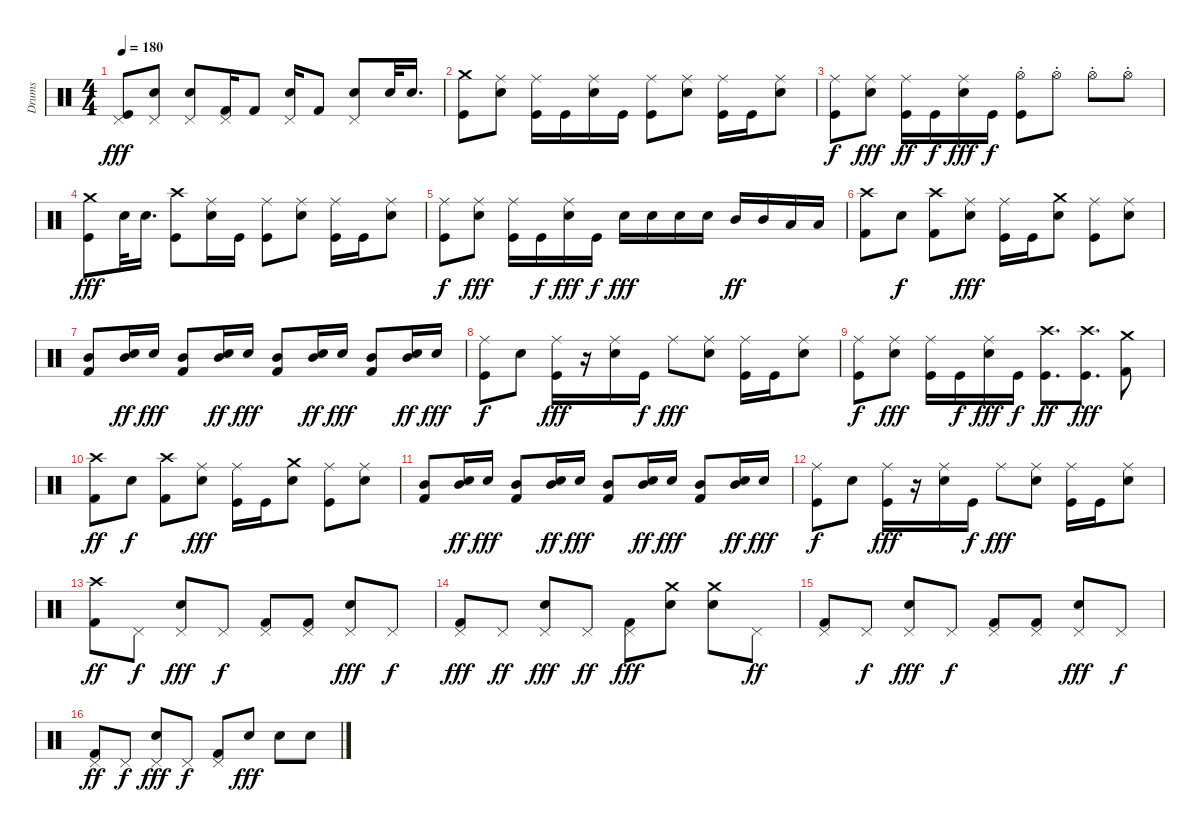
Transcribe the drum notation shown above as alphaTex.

\track ("Drums" "Drums") {instrument percussion}
\staff {score}
\articulation defaults
\ts (4 4)
\tempo 180
\clef neutral
\ks c
("Pedal Hi-Hat (hit)" "Kick (hit)").8{dy fff} ("Pedal Hi-Hat (hit)" "Snare (hit) 2").8 ("Pedal Hi-Hat (hit)" "Snare (hit) 2").8 ("Pedal Hi-Hat (hit)" "Kick (hit) 2").16 "Kick (hit) 2".8 ("Pedal Hi-Hat (hit)" "Snare (hit) 2").16 "Kick (hit) 2".8 ("Pedal Hi-Hat (hit)" "Snare (hit) 2").8 "Snare (hit) 2".32 "Snare (hit) 2".16{d} |
("Crash medium (hit)" "Kick (hit)").8 ("Ride (middle)" "Snare (hit) 2").8 ("Ride (middle)" "Kick (hit)").16 "Kick (hit)".16 ("Ride (middle)" "Snare (hit) 2").16 "Kick (hit)".16 ("Ride (middle)" "Kick (hit)").8 ("Ride (middle)" "Snare (hit) 2").8 ("Ride (middle)" "Kick (hit)").16 "Kick (hit)".16 ("Ride (middle)" "Snare (hit) 2").8 |
("Ride (middle)" "Kick (hit)").8{dy f} ("Ride (middle)" "Snare (hit) 2").8{dy fff} ("Ride (middle)" "Kick (hit)").16{dy ff} "Kick (hit)".16{dy f} ("Ride (middle)" "Snare (hit) 2").16{dy fff} "Kick (hit)".16{dy f} ("Hi-Hat (open)"{st} "Kick (hit)").8 "Hi-Hat (open)"{st}.8 "Hi-Hat (open)"{st}.8 "Hi-Hat (open)"{st}.8 |
("Crash medium (hit)" "Kick (hit)").8{dy fff} "Snare (hit) 2".32 "Snare (hit) 2".16{d} ("Crash high (hit)" "Kick (hit)").8 ("Ride (middle)" "Snare (hit) 2").16 "Kick (hit)".16 ("Ride (middle)" "Kick (hit)").8 ("Ride (middle)" "Snare (hit) 2").8 ("Ride (middle)" "Kick (hit)").16 "Kick (hit)".16 ("Ride (middle)" "Snare (hit) 2").8 |
("Ride (middle)" "Kick (hit)").8{dy f} ("Ride (middle)" "Snare (hit) 2").8{dy fff} ("Ride (middle)" "Kick (hit)").16 "Kick (hit)".16{dy f} ("Ride (middle)" "Snare (hit) 2").16{dy fff} "Kick (hit)".16{dy f} "Snare (hit) 2".16{dy fff} "Snare (hit) 2".16 "Snare (hit) 2".16 "Snare (hit) 2".16 "Mid Tom (hit)".16{dy ff} "Mid Tom (hit)".16 "Low Tom (hit)".16 "Low Tom (hit)".16 |
("Crash high (hit)" "Kick (hit) 2").8 "Snare (hit) 2".8{dy f} ("Crash high (hit)" "Kick (hit) 2").8 ("Ride (middle)" "Snare (hit) 2").8{dy fff} ("Ride (middle)" "Kick (hit)").16 "Kick (hit)".16 ("Crash medium (hit)" "Snare (hit) 2").8 ("Ride (middle)" "Kick (hit)").8 ("Ride (middle)" "Snare (hit) 2").8 |
("Mid Tom (hit)" "Kick (hit) 2").8 ("Snare (hit) 2" "Mid Tom (hit)").16{dy ff} "Snare (hit) 2".16{dy fff} ("Mid Tom (hit)" "Kick (hit) 2").8 ("Snare (hit) 2" "Mid Tom (hit)").16{dy ff} "Snare (hit) 2".16{dy fff} ("Mid Tom (hit)" "Kick (hit) 2").8 ("Snare (hit) 2" "Mid Tom (hit)").16{dy ff} "Snare (hit) 2".16{dy fff} ("Mid Tom (hit)" "Kick (hit) 2").8 ("Snare (hit) 2" "Mid Tom (hit)").16{dy ff} "Snare (hit) 2".16{dy fff} |
("Ride (middle)" "Kick (hit)").8{dy f} "Snare (hit) 2".8 ("Ride (middle)" "Kick (hit)").16{dy fff} r.16 ("Ride (middle)" "Snare (hit) 2").16 "Kick (hit)".16{dy f} "Ride (middle)".8{dy fff} ("Ride (middle)" "Snare (hit) 2").8 ("Ride (middle)" "Kick (hit)").16 "Kick (hit)".16 ("Ride (middle)" "Snare (hit) 2").8 |
("Ride (middle)" "Kick (hit)").8{dy f} ("Ride (middle)" "Snare (hit) 2").8{dy fff} ("Ride (middle)" "Kick (hit)").16 "Kick (hit)".16{dy f} ("Ride (middle)" "Snare (hit) 2").16{dy fff} "Kick (hit)".16{dy f} ("Crash high (hit)" "Kick (hit)").8{d dy ff} ("Crash high (hit)" "Kick (hit)").8{d dy fff} ("Crash medium (hit)" "Kick (hit) 2").8 |
("Crash high (hit)" "Kick (hit) 2").8{dy ff} "Snare (hit) 2".8{dy f} ("Crash high (hit)" "Kick (hit) 2").8 ("Ride (middle)" "Snare (hit) 2").8{dy fff} ("Ride (middle)" "Kick (hit)").16 "Kick (hit)".16 ("Crash medium (hit)" "Snare (hit) 2").8 ("Ride (middle)" "Kick (hit)").8 ("Ride (middle)" "Snare (hit) 2").8 |
("Mid Tom (hit)" "Kick (hit) 2").8 ("Snare (hit) 2" "Mid Tom (hit)").16{dy ff} "Snare (hit) 2".16{dy fff} ("Mid Tom (hit)" "Kick (hit) 2").8 ("Snare (hit) 2" "Mid Tom (hit)").16{dy ff} "Snare (hit) 2".16{dy fff} ("Mid Tom (hit)" "Kick (hit) 2").8 ("Snare (hit) 2" "Mid Tom (hit)").16{dy ff} "Snare (hit) 2".16{dy fff} ("Mid Tom (hit)" "Kick (hit) 2").8 ("Snare (hit) 2" "Mid Tom (hit)").16{dy ff} "Snare (hit) 2".16{dy fff} |
("Ride (middle)" "Kick (hit)").8{dy f} "Snare (hit) 2".8 ("Ride (middle)" "Kick (hit)").16{dy fff} r.16 ("Ride (middle)" "Snare (hit) 2").16 "Kick (hit)".16{dy f} "Ride (middle)".8{dy fff} ("Ride (middle)" "Snare (hit) 2").8 ("Ride (middle)" "Kick (hit)").16 "Kick (hit)".16 ("Ride (middle)" "Snare (hit) 2").8 |
("Crash high (hit)" "Kick (hit) 2").8{dy ff} "Pedal Hi-Hat (hit)".8{dy f} ("Pedal Hi-Hat (hit)" "Snare (hit) 2").8{dy fff} "Pedal Hi-Hat (hit)".8{dy f} ("Pedal Hi-Hat (hit)" "Kick (hit) 2").8 ("Pedal Hi-Hat (hit)" "Kick (hit) 2").8 ("Pedal Hi-Hat (hit)" "Snare (hit) 2").8{dy fff} "Pedal Hi-Hat (hit)".8{dy f} |
("Pedal Hi-Hat (hit)" "Kick (hit) 2").8{dy fff} "Pedal Hi-Hat (hit)".8{dy ff} ("Pedal Hi-Hat (hit)" "Snare (hit) 2").8{dy fff} "Pedal Hi-Hat (hit)".8{dy ff} ("Pedal Hi-Hat (hit)" "Kick (hit) 2").8{dy fff} ("Crash medium (hit)" "Snare (hit) 2").8 ("Crash medium (hit)" "Snare (hit) 2").8 "Pedal Hi-Hat (hit)".8{dy ff} |
("Pedal Hi-Hat (hit)" "Kick (hit) 2").8 "Pedal Hi-Hat (hit)".8{dy f} ("Pedal Hi-Hat (hit)" "Snare (hit) 2").8{dy fff} "Pedal Hi-Hat (hit)".8{dy f} ("Pedal Hi-Hat (hit)" "Kick (hit) 2").8 ("Pedal Hi-Hat (hit)" "Kick (hit) 2").8 ("Pedal Hi-Hat (hit)" "Snare (hit) 2").8{dy fff} "Pedal Hi-Hat (hit)".8{dy f} |
("Pedal Hi-Hat (hit)" "Kick (hit) 2").8{dy ff} "Pedal Hi-Hat (hit)".8{dy f} ("Pedal Hi-Hat (hit)" "Snare (hit) 2").8{dy fff} "Pedal Hi-Hat (hit)".8{dy f} ("Pedal Hi-Hat (hit)" "Kick (hit) 2").8 "Snare (hit) 2".8{dy fff} "Snare (hit) 2".8 "Snare (hit) 2".8
